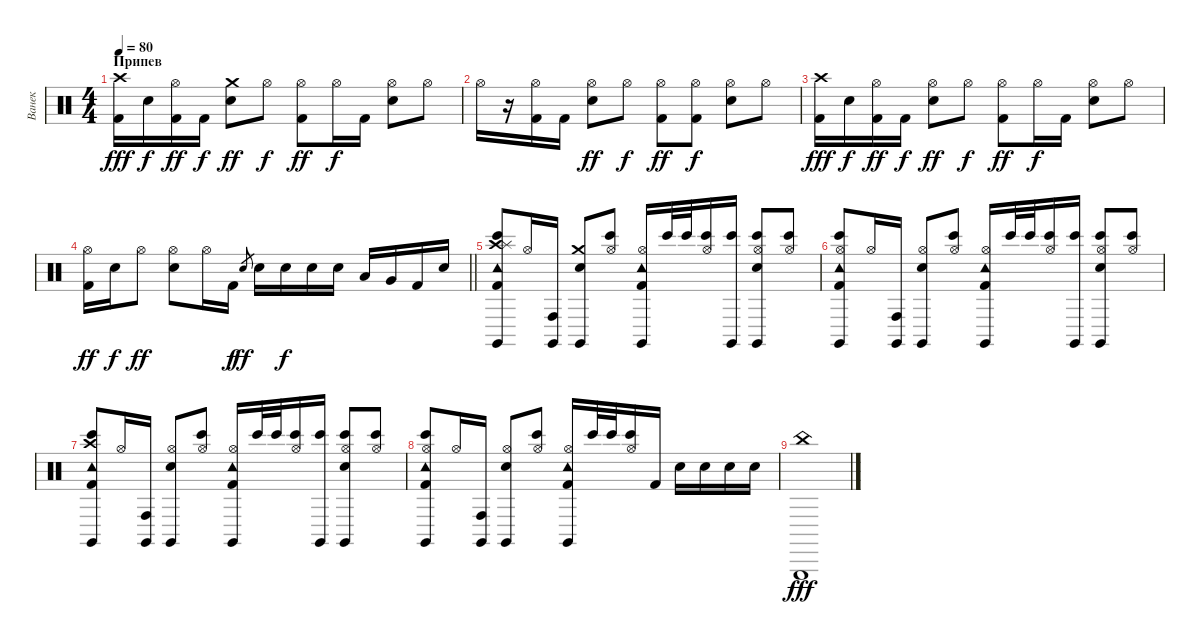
\track ("Ванек" "Ванек") {instrument percussion}
\staff {score}
\articulation defaults
\ts (4 4)
\section ("" "Припев")
\tempo 80
\clef neutral
\ks c
("Crash high (hit)" "Kick (hit) 2").16{dy fff} "Electric Snare (hit)".16{dy f} ("Hi-Hat (open)" "Kick (hit) 2").16{dy ff} "Kick (hit) 2".16{dy f} ("Crash medium (hit)" "Electric Snare (hit)").8{dy ff} "Hi-Hat (open)".8{dy f} ("Hi-Hat (open)" "Kick (hit) 2").8{dy ff} "Hi-Hat (open)".16{dy f} "Kick (hit) 2".16 ("Hi-Hat (open)" "Electric Snare (hit)").8 "Hi-Hat (open)".8 |
"Hi-Hat (open)".16 r.16 ("Hi-Hat (open)" "Kick (hit) 2").16 "Kick (hit) 2".16 ("Hi-Hat (open)" "Electric Snare (hit)").8{dy ff} "Hi-Hat (open)".8{dy f} ("Hi-Hat (open)" "Kick (hit) 2").8{dy ff} ("Hi-Hat (open)" "Kick (hit) 2").8{dy f} ("Hi-Hat (open)" "Electric Snare (hit)").8 "Hi-Hat (open)".8 |
("Crash high (hit)" "Kick (hit) 2").16{dy fff} "Electric Snare (hit)".16{dy f} ("Hi-Hat (open)" "Kick (hit) 2").16{dy ff} "Kick (hit) 2".16{dy f} ("Hi-Hat (open)" "Electric Snare (hit)").8{dy ff} "Hi-Hat (open)".8{dy f} ("Hi-Hat (open)" "Kick (hit) 2").8{dy ff} "Hi-Hat (open)".16{dy f} "Kick (hit) 2".16 ("Hi-Hat (open)" "Electric Snare (hit)").8 "Hi-Hat (open)".8 |
\barLineRight lightlight
("Hi-Hat (open)" "Kick (hit) 2").16{dy ff} "Electric Snare (hit)".16{dy f} "Hi-Hat (open)".8{dy ff} ("Hi-Hat (open)" "Electric Snare (hit)").8 "Hi-Hat (open)".16 "Kick (hit) 2".16{dy f} "Electric Snare (hit)".8{gr dy ff} "Electric Snare (hit)".16 "Electric Snare (hit)".16{dy f} "Electric Snare (hit)".16 "Electric Snare (hit)".16 "Low Floor Tom (hit)".16 "Very Low Tom (hit)".16 "Kick (hit) 2".16 "Electric Snare (hit)".16 |
("Crash high (hit)" "Bongo High (hit)" "Splash (hit)" "Tambourine (hit)" "Claves (hit)" "Kick (hit) 2").8 "Hi-Hat (open)".16 ("Conga high (hit)" "Claves (hit)").16 ("Crash medium (hit)" "Claves (hit)" "Electric Snare (hit)").8 ("Hi-Hat (open)" "Bongo High (hit)").8 ("Hi-Hat (open)" "Tambourine (hit)" "Claves (hit)" "Kick (hit) 2").16 "Bongo High (hit)".32 "Bongo High (hit)".32 ("Hi-Hat (open)" "Bongo High (hit)").16 ("Bongo High (hit)" "Claves (hit)").16 ("Hi-Hat (open)" "Bongo High (hit)" "Claves (hit)" "Electric Snare (hit)").8 ("Hi-Hat (open)" "Bongo High (hit)").8 |
("Hi-Hat (open)" "Bongo High (hit)" "Tambourine (hit)" "Claves (hit)" "Kick (hit) 2").8 "Hi-Hat (open)".16 ("Conga high (hit)" "Claves (hit)").16 ("Hi-Hat (open)" "Claves (hit)" "Electric Snare (hit)").8 ("Hi-Hat (open)" "Bongo High (hit)").8 ("Hi-Hat (open)" "Tambourine (hit)" "Claves (hit)" "Kick (hit) 2").16 "Bongo High (hit)".32 "Bongo High (hit)".32 ("Hi-Hat (open)" "Bongo High (hit)").16 ("Bongo High (hit)" "Claves (hit)").16 ("Hi-Hat (open)" "Bongo High (hit)" "Claves (hit)" "Electric Snare (hit)").8 ("Hi-Hat (open)" "Bongo High (hit)").8 |
("Crash high (hit)" "Bongo High (hit)" "Tambourine (hit)" "Claves (hit)" "Kick (hit) 2").8 "Hi-Hat (open)".16 ("Conga high (hit)" "Claves (hit)").16 ("Hi-Hat (open)" "Claves (hit)" "Electric Snare (hit)").8 ("Hi-Hat (open)" "Bongo High (hit)").8 ("Hi-Hat (open)" "Tambourine (hit)" "Claves (hit)" "Kick (hit) 2").16 "Bongo High (hit)".32 "Bongo High (hit)".32 ("Hi-Hat (open)" "Bongo High (hit)").16 ("Bongo High (hit)" "Claves (hit)").16 ("Hi-Hat (open)" "Bongo High (hit)" "Claves (hit)" "Electric Snare (hit)").8 ("Hi-Hat (open)" "Bongo High (hit)").8 |
("Hi-Hat (open)" "Bongo High (hit)" "Tambourine (hit)" "Claves (hit)" "Kick (hit) 2").8 "Hi-Hat (open)".16 ("Conga high (hit)" "Claves (hit)").16 ("Hi-Hat (open)" "Claves (hit)" "Electric Snare (hit)").8 ("Hi-Hat (open)" "Bongo High (hit)").8 ("Hi-Hat (open)" "Tambourine (hit)" "Claves (hit)" "Kick (hit) 2").16 "Bongo High (hit)".32 "Bongo High (hit)".32 ("Hi-Hat (open)" "Bongo High (hit)").16 "Kick (hit) 2".16 "Electric Snare (hit)".16 "Electric Snare (hit)".16 "Electric Snare (hit)".16 "Electric Snare (hit)".16 |
("Triangle (hit)" "China (hit)").1{dy fff}
